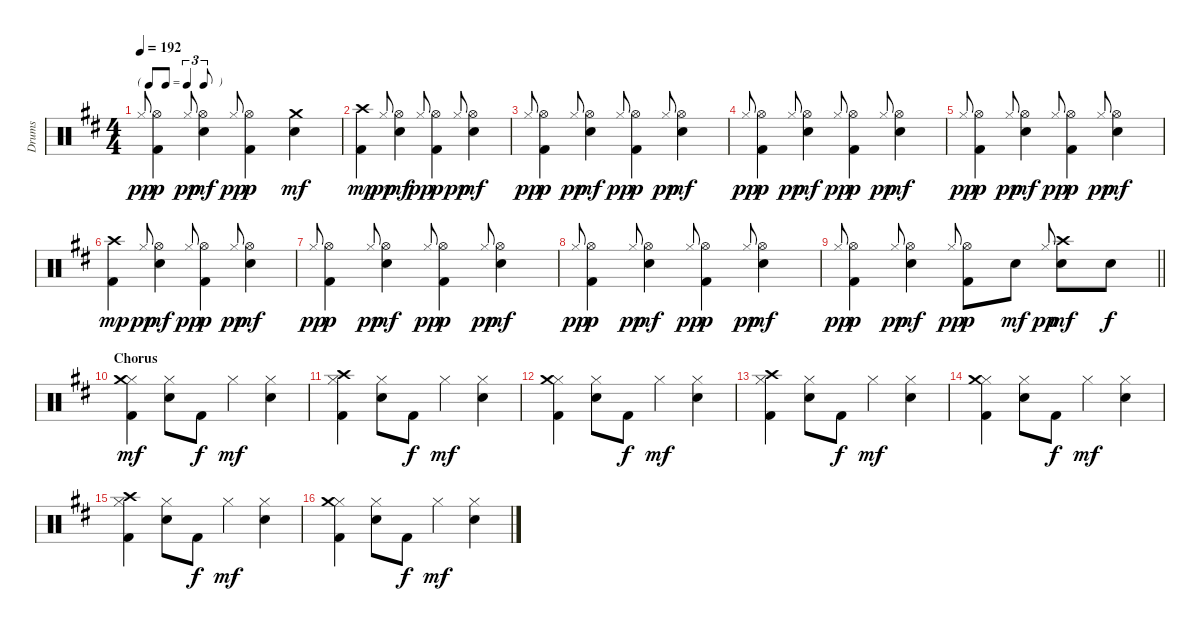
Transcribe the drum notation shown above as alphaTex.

\track ("Drums" "Drums") {instrument percussion}
\staff {score}
\articulation defaults
\ts (4 4)
\tf triplet8th
\tempo 192
\clef neutral
\ks bminor "Hi-Hat (closed)".8{gr onbeat dy pp}
("Hi-Hat (open)" "Kick (hit) 2").4{dy p} "Hi-Hat (closed)".8{gr onbeat dy pp} ("Hi-Hat (open)" "Snare (hit) 2").4{dy mf} "Hi-Hat (closed)".8{gr onbeat dy pp} ("Hi-Hat (open)" "Kick (hit) 2").4{dy p} ("Crash medium (hit)" "Snare (hit) 2").4{dy mf} |
("Crash high (hit)" "Kick (hit) 2").4{dy mp} "Hi-Hat (closed)".8{gr onbeat dy pp} ("Hi-Hat (open)" "Snare (hit) 2").4{dy mf} "Hi-Hat (closed)".8{gr onbeat dy pp} ("Hi-Hat (open)" "Kick (hit) 2").4{dy p} "Hi-Hat (closed)".8{gr onbeat dy pp} ("Hi-Hat (open)" "Snare (hit) 2").4{dy mf} |
"Hi-Hat (closed)".8{gr onbeat dy pp} ("Hi-Hat (open)" "Kick (hit) 2").4{dy p} "Hi-Hat (closed)".8{gr onbeat dy pp} ("Hi-Hat (open)" "Snare (hit) 2").4{dy mf} "Hi-Hat (closed)".8{gr onbeat dy pp} ("Hi-Hat (open)" "Kick (hit) 2").4{dy p} "Hi-Hat (closed)".8{gr onbeat dy pp} ("Hi-Hat (open)" "Snare (hit) 2").4{dy mf} |
"Hi-Hat (closed)".8{gr onbeat dy pp} ("Hi-Hat (open)" "Kick (hit) 2").4{dy p} "Hi-Hat (closed)".8{gr onbeat dy pp} ("Hi-Hat (open)" "Snare (hit) 2").4{dy mf} "Hi-Hat (closed)".8{gr onbeat dy pp} ("Hi-Hat (open)" "Kick (hit) 2").4{dy p} "Hi-Hat (closed)".8{gr onbeat dy pp} ("Hi-Hat (open)" "Snare (hit) 2").4{dy mf} |
"Hi-Hat (closed)".8{gr onbeat dy pp} ("Hi-Hat (open)" "Kick (hit) 2").4{dy p} "Hi-Hat (closed)".8{gr onbeat dy pp} ("Hi-Hat (open)" "Snare (hit) 2").4{dy mf} "Hi-Hat (closed)".8{gr onbeat dy pp} ("Hi-Hat (open)" "Kick (hit) 2").4{dy p} "Hi-Hat (closed)".8{gr onbeat dy pp} ("Hi-Hat (open)" "Snare (hit) 2").4{dy mf} |
("Crash high (hit)" "Kick (hit) 2").4{dy mp} "Hi-Hat (closed)".8{gr onbeat dy pp} ("Hi-Hat (open)" "Snare (hit) 2").4{dy mf} "Hi-Hat (closed)".8{gr onbeat dy pp} ("Hi-Hat (open)" "Kick (hit) 2").4{dy p} "Hi-Hat (closed)".8{gr onbeat dy pp} ("Hi-Hat (open)" "Snare (hit) 2").4{dy mf} |
"Hi-Hat (closed)".8{gr onbeat dy pp} ("Hi-Hat (open)" "Kick (hit) 2").4{dy p} "Hi-Hat (closed)".8{gr onbeat dy pp} ("Hi-Hat (open)" "Snare (hit) 2").4{dy mf} "Hi-Hat (closed)".8{gr onbeat dy pp} ("Hi-Hat (open)" "Kick (hit) 2").4{dy p} "Hi-Hat (closed)".8{gr onbeat dy pp} ("Hi-Hat (open)" "Snare (hit) 2").4{dy mf} |
"Hi-Hat (closed)".8{gr onbeat dy pp} ("Hi-Hat (open)" "Kick (hit) 2").4{dy p} "Hi-Hat (closed)".8{gr onbeat dy pp} ("Hi-Hat (open)" "Snare (hit) 2").4{dy mf} "Hi-Hat (closed)".8{gr onbeat dy pp} ("Hi-Hat (open)" "Kick (hit) 2").4{dy p} "Hi-Hat (closed)".8{gr onbeat dy pp} ("Hi-Hat (open)" "Snare (hit) 2").4{dy mf} |
\barLineRight lightlight "Hi-Hat (closed)".8{gr onbeat dy pp}
("Hi-Hat (open)" "Kick (hit) 2").4{dy p} "Hi-Hat (closed)".8{gr onbeat dy pp} ("Hi-Hat (open)" "Snare (hit) 2").4{dy mf} "Hi-Hat (closed)".8{gr onbeat dy pp} ("Hi-Hat (open)" "Kick (hit) 2").8{dy p} "Snare (hit) 2".8{dy mf} "Hi-Hat (closed)".8{gr onbeat dy pp} ("Crash high (hit)" "Snare (hit) 2").8{dy mf} "Snare (hit) 2".8{dy f} |
\section ("" "Chorus")
("Hi-Hat (closed)" "Crash medium (hit)" "Kick (hit) 2").4{dy mf} ("Hi-Hat (closed)" "Snare (hit) 2").8 "Kick (hit) 2".8{dy f} "Hi-Hat (closed)".4{dy mf} ("Hi-Hat (closed)" "Snare (hit) 2").4 |
("Hi-Hat (closed)" "Crash high (hit)" "Kick (hit) 2").4 ("Hi-Hat (closed)" "Snare (hit) 2").8 "Kick (hit) 2".8{dy f} "Hi-Hat (closed)".4{dy mf} ("Hi-Hat (closed)" "Snare (hit) 2").4 |
("Hi-Hat (closed)" "Crash medium (hit)" "Kick (hit) 2").4 ("Hi-Hat (closed)" "Snare (hit) 2").8 "Kick (hit) 2".8{dy f} "Hi-Hat (closed)".4{dy mf} ("Hi-Hat (closed)" "Snare (hit) 2").4 |
("Hi-Hat (closed)" "Crash high (hit)" "Kick (hit) 2").4 ("Hi-Hat (closed)" "Snare (hit) 2").8 "Kick (hit) 2".8{dy f} "Hi-Hat (closed)".4{dy mf} ("Hi-Hat (closed)" "Snare (hit) 2").4 |
("Hi-Hat (closed)" "Crash medium (hit)" "Kick (hit) 2").4 ("Hi-Hat (closed)" "Snare (hit) 2").8 "Kick (hit) 2".8{dy f} "Hi-Hat (closed)".4{dy mf} ("Hi-Hat (closed)" "Snare (hit) 2").4 |
("Hi-Hat (closed)" "Crash high (hit)" "Kick (hit) 2").4 ("Hi-Hat (closed)" "Snare (hit) 2").8 "Kick (hit) 2".8{dy f} "Hi-Hat (closed)".4{dy mf} ("Hi-Hat (closed)" "Snare (hit) 2").4 |
("Hi-Hat (closed)" "Crash medium (hit)" "Kick (hit) 2").4 ("Hi-Hat (closed)" "Snare (hit) 2").8 "Kick (hit) 2".8{dy f} "Hi-Hat (closed)".4{dy mf} ("Hi-Hat (closed)" "Snare (hit) 2").4
